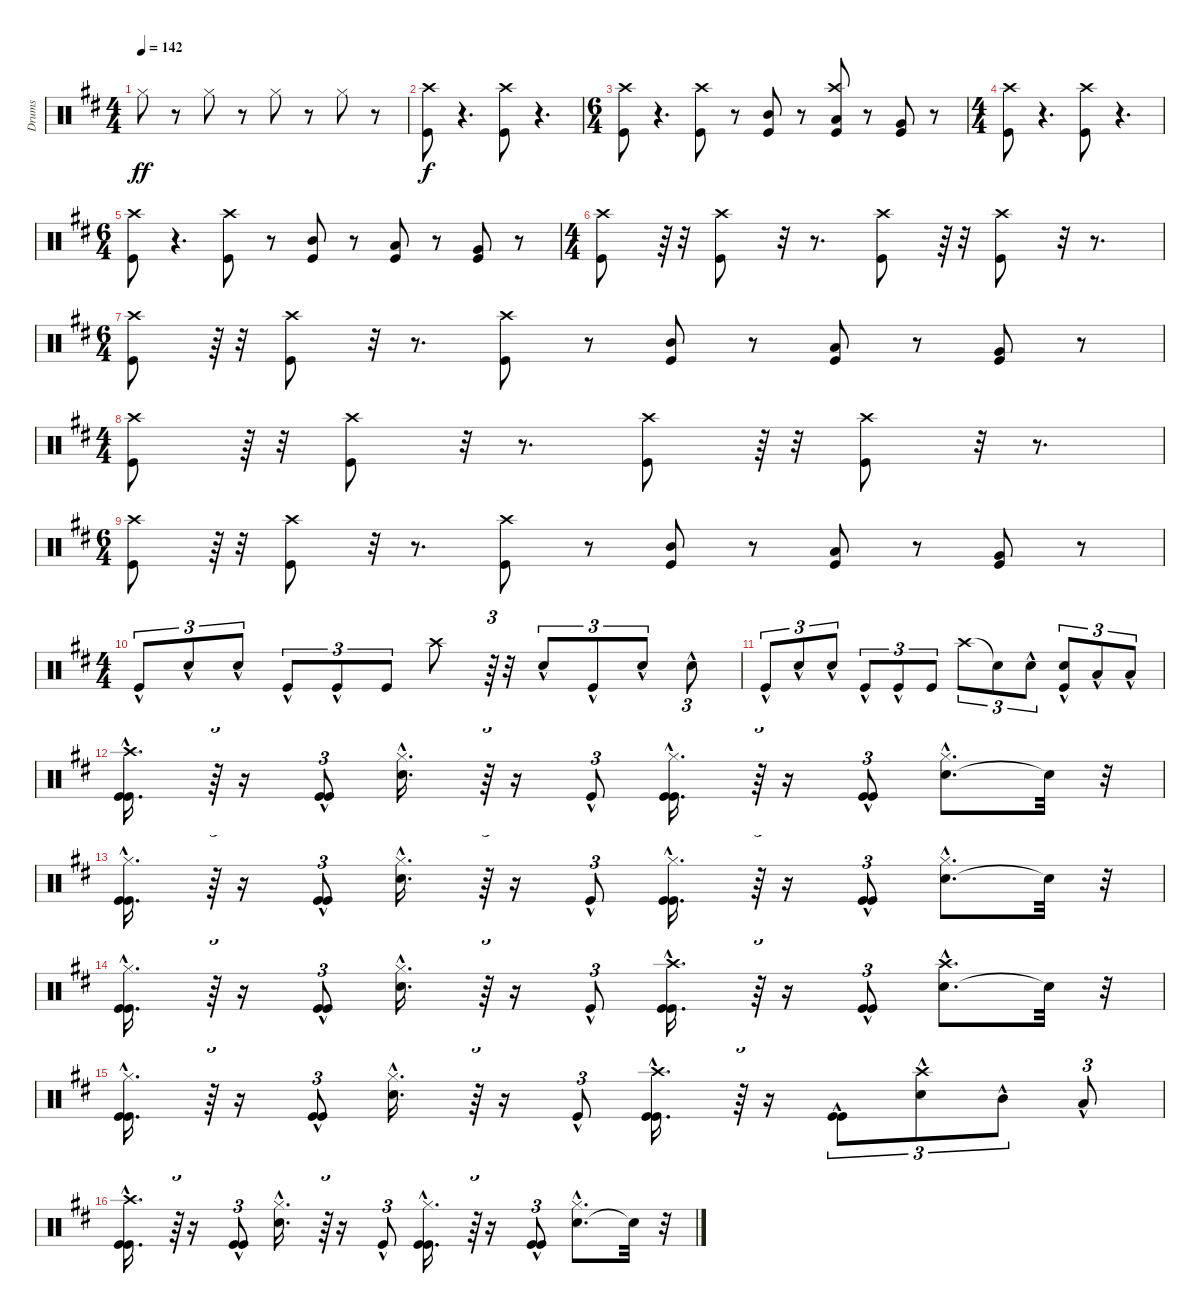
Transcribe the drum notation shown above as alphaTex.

\track ("Drums" "Drums") {instrument percussion}
\staff {score}
\articulation defaults
\ts (4 4)
\tempo 142
\clef neutral
\ks bminor "Hi-Hat (closed)".8{dy ff}
r.8 "Hi-Hat (closed)".8 r.8 "Hi-Hat (closed)".8 r.8 "Hi-Hat (closed)".8 r.8 |
("Kick (hit)" "Crash high (hit)").8{dy f} r.4{d} ("Kick (hit)" "Crash high (hit)").8 r.4{d} |
\ts (6 4)
("Kick (hit)" "Crash high (hit)").8 r.4{d} ("Kick (hit)" "Crash high (hit)").8 r.8 ("Kick (hit)" "Mid Tom (hit)").8 r.8 ("Kick (hit)" "Low Tom (hit)" "Crash high (hit)").8 r.8 ("Kick (hit)" "Very Low Tom (hit)").8 r.8 |
\ts (4 4)
("Kick (hit)" "Crash high (hit)").8 r.4{d} ("Kick (hit)" "Crash high (hit)").8 r.4{d} |
\ts (6 4)
("Kick (hit)" "Crash high (hit)").8 r.4{d} ("Kick (hit)" "Crash high (hit)").8 r.8 ("Kick (hit)" "Mid Tom (hit)").8 r.8 ("Kick (hit)" "Low Tom (hit)").8 r.8 ("Kick (hit)" "Very Low Tom (hit)").8 r.8 |
\ts (4 4)
("Kick (hit)" "Crash high (hit)").8 r.64{tu (3 2)} r.32 ("Kick (hit)" "Crash high (hit)").8 r.32{tu (3 2)} r.8{d} ("Kick (hit)" "Crash high (hit)").8 r.64{tu (3 2)} r.32 ("Kick (hit)" "Crash high (hit)").8 r.32{tu (3 2)} r.8{d} |
\ts (6 4)
("Kick (hit)" "Crash high (hit)").8 r.64{tu (3 2)} r.32 ("Kick (hit)" "Crash high (hit)").8 r.32{tu (3 2)} r.8{d} ("Kick (hit)" "Crash high (hit)").8 r.8 ("Kick (hit)" "Mid Tom (hit)").8 r.8 ("Kick (hit)" "Low Tom (hit)").8 r.8 ("Kick (hit)" "Very Low Tom (hit)").8 r.8 |
\ts (4 4)
("Kick (hit)" "Crash high (hit)").8 r.64{tu (3 2)} r.32 ("Kick (hit)" "Crash high (hit)").8 r.32{tu (3 2)} r.8{d} ("Kick (hit)" "Crash high (hit)").8 r.64{tu (3 2)} r.32 ("Kick (hit)" "Crash high (hit)").8 r.32{tu (3 2)} r.8{d} |
\ts (6 4)
("Kick (hit)" "Crash high (hit)").8 r.64{tu (3 2)} r.32 ("Kick (hit)" "Crash high (hit)").8 r.32{tu (3 2)} r.8{d} ("Kick (hit)" "Crash high (hit)").8 r.8 ("Kick (hit)" "Mid Tom (hit)").8 r.8 ("Kick (hit)" "Low Tom (hit)").8 r.8 ("Kick (hit)" "Very Low Tom (hit)").8 r.8 |
\ts (4 4)
"Kick (hit)"{hac}.8{tu (3 2)} "Snare (hit) 2"{hac}.8{tu (3 2)} "Snare (hit) 2"{hac}.8{tu (3 2)} "Kick (hit)"{hac}.8{tu (3 2)} "Kick (hit)"{hac}.8{tu (3 2)} "Kick (hit)".8{tu (3 2)} "Crash high (hit)".8 r.64{tu (3 2)} r.32 "Snare (hit) 2"{hac}.8{tu (3 2)} "Kick (hit)"{hac}.8{tu (3 2)} "Snare (hit) 2"{hac}.8{tu (3 2)} "Snare (hit) 2"{hac}.8{tu (3 2)} |
"Kick (hit)"{hac}.8{tu (3 2)} "Snare (hit) 2"{hac}.8{tu (3 2)} "Snare (hit) 2"{hac}.8{tu (3 2)} "Kick (hit)"{hac}.8{tu (3 2)} "Kick (hit)"{hac}.8{tu (3 2)} "Kick (hit)".8{tu (3 2)} "Crash high (hit)".8{tu (3 2)} "Snare (hit)"{t}.8{tu (3 2)} "Snare (hit) 2"{hac}.8{tu (3 2)} ("Kick (hit)"{hac} "Snare (hit) 2"{hac}).8{tu (3 2)} "Low Floor Tom (hit)"{hac}.8{tu (3 2)} "Low Floor Tom (hit)"{hac}.8{tu (3 2)} |
("Kick (hit)"{hac} "Kick (hit)"{hac} "Crash high (hit)"{hac}).16{d} r.64{tu (3 2)} r.16 ("Kick (hit)"{hac} "Kick (hit)"{hac}).8{tu (3 2)} ("Snare (hit) 2"{hac} "Hi-Hat (closed)"{hac}).16{d} r.64{tu (3 2)} r.16 "Kick (hit)"{hac}.8{tu (3 2)} ("Kick (hit)"{hac} "Kick (hit)"{hac} "Hi-Hat (closed)"{hac}).16{d} r.64{tu (3 2)} r.16 ("Kick (hit)"{hac} "Kick (hit)"{hac}).8{tu (3 2)} ("Snare (hit) 2"{hac} "Hi-Hat (closed)"{hac}).8{d} "Snare (hit)"{t}.32 r.32 |
("Kick (hit)"{hac} "Kick (hit)"{hac} "Hi-Hat (closed)"{hac}).16{d} r.64{tu (3 2)} r.16 ("Kick (hit)"{hac} "Kick (hit)"{hac}).8{tu (3 2)} ("Snare (hit) 2"{hac} "Hi-Hat (closed)"{hac}).16{d} r.64{tu (3 2)} r.16 "Kick (hit)"{hac}.8{tu (3 2)} ("Kick (hit)"{hac} "Kick (hit)"{hac} "Hi-Hat (closed)"{hac}).16{d} r.64{tu (3 2)} r.16 ("Kick (hit)"{hac} "Kick (hit)"{hac}).8{tu (3 2)} ("Snare (hit) 2"{hac} "Hi-Hat (closed)"{hac}).8{d} "Snare (hit)"{t}.32 r.32 |
("Kick (hit)"{hac} "Kick (hit)"{hac} "Hi-Hat (closed)"{hac}).16{d} r.64{tu (3 2)} r.16 ("Kick (hit)"{hac} "Kick (hit)"{hac}).8{tu (3 2)} ("Snare (hit) 2"{hac} "Hi-Hat (closed)"{hac}).16{d} r.64{tu (3 2)} r.16 "Kick (hit)"{hac}.8{tu (3 2)} ("Kick (hit)"{hac} "Kick (hit)"{hac} "Crash high (hit)"{hac}).16{d} r.64{tu (3 2)} r.16 ("Kick (hit)"{hac} "Kick (hit)"{hac}).8{tu (3 2)} ("Snare (hit) 2"{hac} "Crash high (hit)"{hac}).8{d} "Snare (hit)"{t}.32 r.32 |
("Kick (hit)"{hac} "Kick (hit)"{hac} "Hi-Hat (closed)"{hac}).16{d} r.64{tu (3 2)} r.16 ("Kick (hit)"{hac} "Kick (hit)"{hac}).8{tu (3 2)} ("Snare (hit) 2"{hac} "Hi-Hat (closed)"{hac}).16{d} r.64{tu (3 2)} r.16 "Kick (hit)"{hac}.8{tu (3 2)} ("Kick (hit)"{hac} "Kick (hit)"{hac} "Crash high (hit)"{hac}).16{d} r.64{tu (3 2)} r.16 ("Kick (hit)"{hac} "Kick (hit)"{hac}).8{tu (3 2)} ("Snare (hit) 2"{hac} "Crash high (hit)"{hac}).8{tu (3 2)} "Mid Tom (hit)"{hac}.8{tu (3 2)} "Low Tom (hit)"{hac}.8{tu (3 2)} |
("Kick (hit)"{hac} "Kick (hit)"{hac} "Crash high (hit)"{hac}).16{d} r.64{tu (3 2)} r.16 ("Kick (hit)"{hac} "Kick (hit)"{hac}).8{tu (3 2)} ("Snare (hit) 2"{hac} "Hi-Hat (closed)"{hac}).16{d} r.64{tu (3 2)} r.16 "Kick (hit)"{hac}.8{tu (3 2)} ("Kick (hit)"{hac} "Kick (hit)"{hac} "Hi-Hat (closed)"{hac}).16{d} r.64{tu (3 2)} r.16 ("Kick (hit)"{hac} "Kick (hit)"{hac}).8{tu (3 2)} ("Snare (hit) 2"{hac} "Hi-Hat (closed)"{hac}).8{d} "Snare (hit)"{t}.32 r.32
